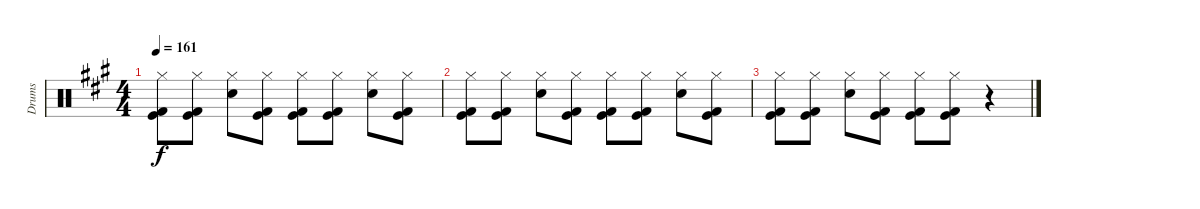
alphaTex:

\track ("Drums" "Drums") {instrument percussion}
\staff {score}
\articulation defaults
\ts (4 4)
\tempo 161
\clef neutral
\ks a
("Hi-Hat (closed)" "Kick (hit)" "Kick (hit) 2").8{dy f} ("Hi-Hat (closed)" "Kick (hit)" "Kick (hit) 2").8 ("Hi-Hat (closed)" "Snare (hit) 2").8 ("Hi-Hat (closed)" "Kick (hit)" "Kick (hit) 2").8 ("Hi-Hat (closed)" "Kick (hit)" "Kick (hit) 2").8 ("Hi-Hat (closed)" "Kick (hit)" "Kick (hit) 2").8 ("Hi-Hat (closed)" "Snare (hit) 2").8 ("Hi-Hat (closed)" "Kick (hit)" "Kick (hit) 2").8 |
("Hi-Hat (closed)" "Kick (hit)" "Kick (hit) 2").8 ("Hi-Hat (closed)" "Kick (hit)" "Kick (hit) 2").8 ("Hi-Hat (closed)" "Snare (hit) 2").8 ("Hi-Hat (closed)" "Kick (hit)" "Kick (hit) 2").8 ("Hi-Hat (closed)" "Kick (hit)" "Kick (hit) 2").8 ("Hi-Hat (closed)" "Kick (hit)" "Kick (hit) 2").8 ("Hi-Hat (closed)" "Snare (hit) 2").8 ("Hi-Hat (closed)" "Kick (hit)" "Kick (hit) 2").8 |
("Hi-Hat (closed)" "Kick (hit)" "Kick (hit) 2").8 ("Hi-Hat (closed)" "Kick (hit)" "Kick (hit) 2").8 ("Hi-Hat (closed)" "Snare (hit) 2").8 ("Hi-Hat (closed)" "Kick (hit)" "Kick (hit) 2").8 ("Hi-Hat (closed)" "Kick (hit)" "Kick (hit) 2").8 ("Hi-Hat (closed)" "Kick (hit)" "Kick (hit) 2").8 r.4
